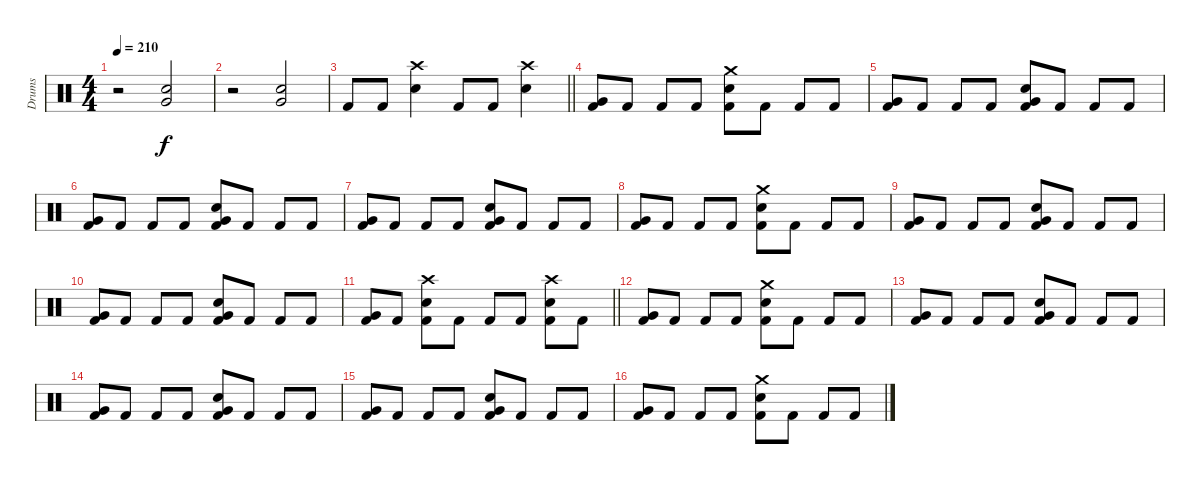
\track ("Drums" "Drums") {instrument percussion}
\staff {score}
\articulation defaults
\ts (4 4)
\tempo 210
\clef neutral
\ks c
r.2{dy f} ("Very Low Tom (hit)" "Snare (hit) 2").2 |
r.2 ("Very Low Tom (hit)" "Snare (hit) 2").2 |
\barLineRight lightlight "Kick (hit) 2".8 "Kick (hit) 2".8
("Crash high (hit)" "Snare (hit) 2").4 "Kick (hit) 2".8 "Kick (hit) 2".8 ("Crash high (hit)" "Snare (hit) 2").4 |
\section ("" "")
("Very Low Tom (hit)" "Kick (hit) 2").8 "Kick (hit) 2".8 "Kick (hit) 2".8 "Kick (hit) 2".8 ("Crash medium (hit)" "Snare (hit) 2" "Kick (hit) 2").8 "Kick (hit) 2".8 "Kick (hit) 2".8 "Kick (hit) 2".8 |
("Very Low Tom (hit)" "Kick (hit) 2").8 "Kick (hit) 2".8 "Kick (hit) 2".8 "Kick (hit) 2".8 ("Very Low Tom (hit)" "Snare (hit) 2" "Kick (hit) 2").8 "Kick (hit) 2".8 "Kick (hit) 2".8 "Kick (hit) 2".8 |
("Very Low Tom (hit)" "Kick (hit) 2").8 "Kick (hit) 2".8 "Kick (hit) 2".8 "Kick (hit) 2".8 ("Very Low Tom (hit)" "Snare (hit) 2" "Kick (hit) 2").8 "Kick (hit) 2".8 "Kick (hit) 2".8 "Kick (hit) 2".8 |
("Very Low Tom (hit)" "Kick (hit) 2").8 "Kick (hit) 2".8 "Kick (hit) 2".8 "Kick (hit) 2".8 ("Very Low Tom (hit)" "Snare (hit) 2" "Kick (hit) 2").8 "Kick (hit) 2".8 "Kick (hit) 2".8 "Kick (hit) 2".8 |
("Very Low Tom (hit)" "Kick (hit) 2").8 "Kick (hit) 2".8 "Kick (hit) 2".8 "Kick (hit) 2".8 ("Crash medium (hit)" "Snare (hit) 2" "Kick (hit) 2").8 "Kick (hit) 2".8 "Kick (hit) 2".8 "Kick (hit) 2".8 |
("Very Low Tom (hit)" "Kick (hit) 2").8 "Kick (hit) 2".8 "Kick (hit) 2".8 "Kick (hit) 2".8 ("Very Low Tom (hit)" "Snare (hit) 2" "Kick (hit) 2").8 "Kick (hit) 2".8 "Kick (hit) 2".8 "Kick (hit) 2".8 |
("Very Low Tom (hit)" "Kick (hit) 2").8 "Kick (hit) 2".8 "Kick (hit) 2".8 "Kick (hit) 2".8 ("Very Low Tom (hit)" "Snare (hit) 2" "Kick (hit) 2").8 "Kick (hit) 2".8 "Kick (hit) 2".8 "Kick (hit) 2".8 |
\barLineRight lightlight
("Very Low Tom (hit)" "Kick (hit) 2").8 "Kick (hit) 2".8 ("Crash high (hit)" "Snare (hit) 2" "Kick (hit) 2").8 "Kick (hit) 2".8 "Kick (hit) 2".8 "Kick (hit) 2".8 ("Crash high (hit)" "Snare (hit) 2" "Kick (hit) 2").8 "Kick (hit) 2".8 |
("Very Low Tom (hit)" "Kick (hit) 2").8 "Kick (hit) 2".8 "Kick (hit) 2".8 "Kick (hit) 2".8 ("Crash medium (hit)" "Snare (hit) 2" "Kick (hit) 2").8 "Kick (hit) 2".8 "Kick (hit) 2".8 "Kick (hit) 2".8 |
("Very Low Tom (hit)" "Kick (hit) 2").8 "Kick (hit) 2".8 "Kick (hit) 2".8 "Kick (hit) 2".8 ("Very Low Tom (hit)" "Snare (hit) 2" "Kick (hit) 2").8 "Kick (hit) 2".8 "Kick (hit) 2".8 "Kick (hit) 2".8 |
("Very Low Tom (hit)" "Kick (hit) 2").8 "Kick (hit) 2".8 "Kick (hit) 2".8 "Kick (hit) 2".8 ("Very Low Tom (hit)" "Snare (hit) 2" "Kick (hit) 2").8 "Kick (hit) 2".8 "Kick (hit) 2".8 "Kick (hit) 2".8 |
("Very Low Tom (hit)" "Kick (hit) 2").8 "Kick (hit) 2".8 "Kick (hit) 2".8 "Kick (hit) 2".8 ("Very Low Tom (hit)" "Snare (hit) 2" "Kick (hit) 2").8 "Kick (hit) 2".8 "Kick (hit) 2".8 "Kick (hit) 2".8 |
("Very Low Tom (hit)" "Kick (hit) 2").8 "Kick (hit) 2".8 "Kick (hit) 2".8 "Kick (hit) 2".8 ("Crash medium (hit)" "Snare (hit) 2" "Kick (hit) 2").8 "Kick (hit) 2".8 "Kick (hit) 2".8 "Kick (hit) 2".8
